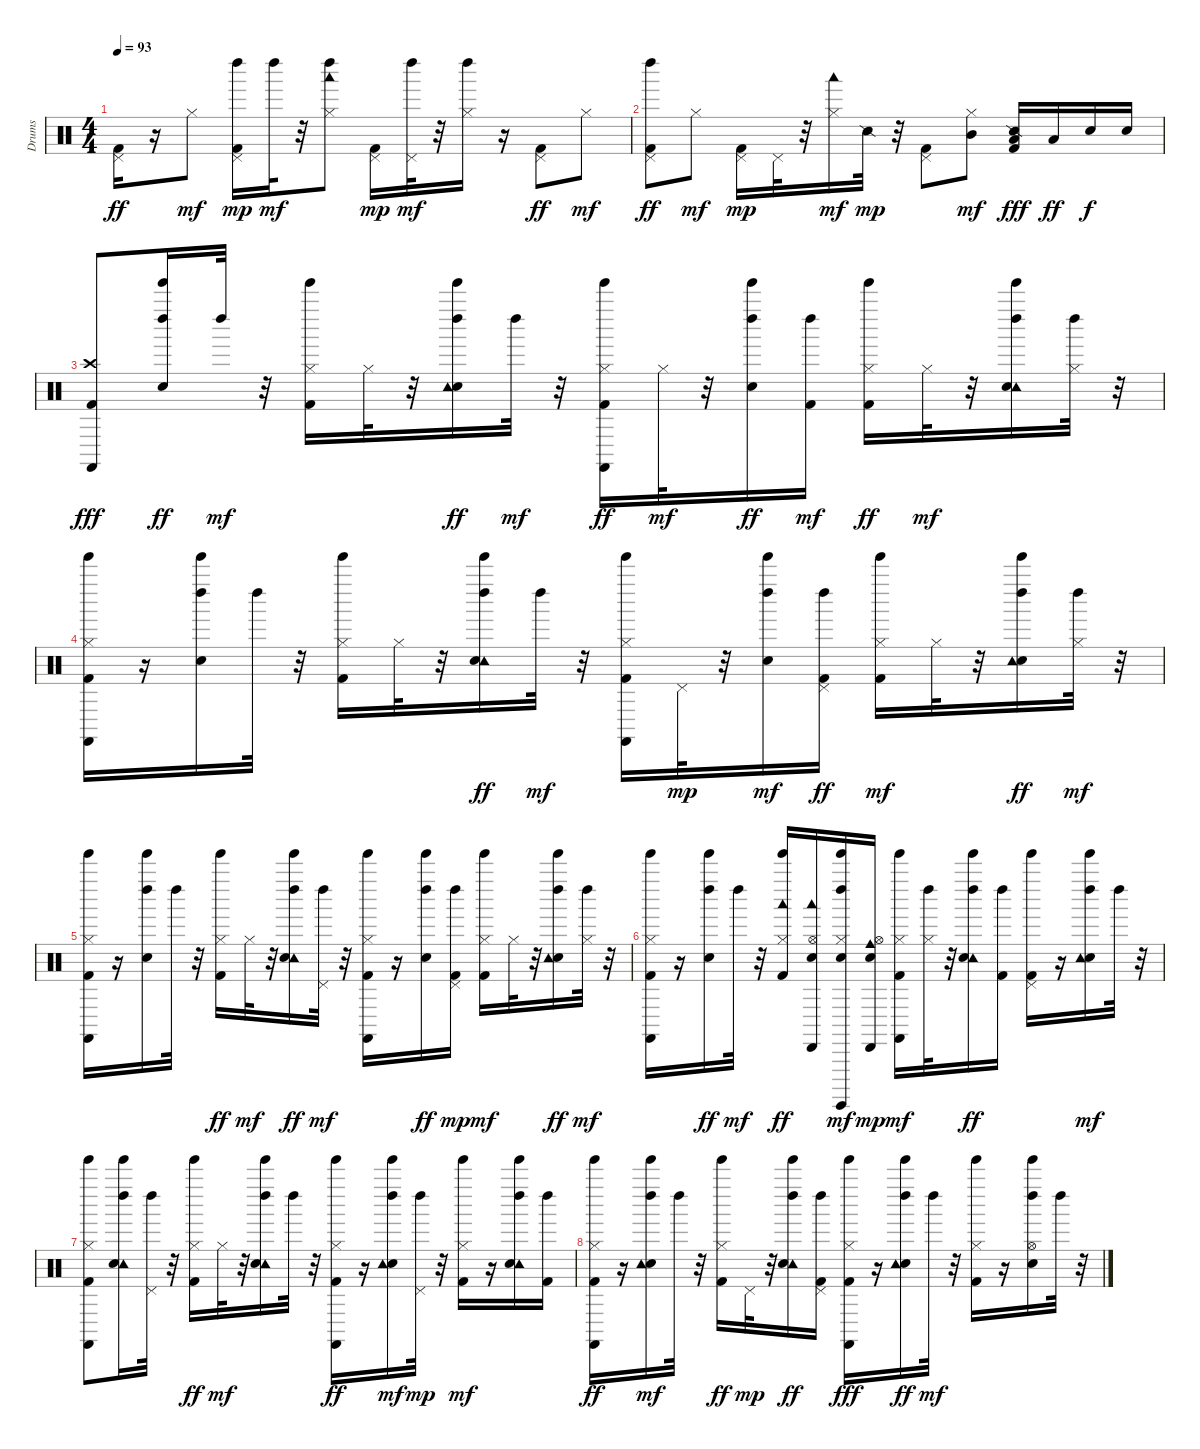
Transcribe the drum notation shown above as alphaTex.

\track ("Drums" "Drums") {instrument percussion}
\staff {score}
\articulation defaults
\ts (4 4)
\tempo 93
\clef neutral
\ks c
("Pedal Hi-Hat (hit)" "Kick (hit) 2").16{dy ff} r.16 "Hi-Hat (closed)".8{dy mf} ("Kick (hit) 2" "Left Maraca (hit)" "Pedal Hi-Hat (hit)").16{dy mp} "Left Maraca (hit)".32{dy mf} r.32 ("Woodblock low (hit)" "Hi-Hat (closed)" "Left Maraca (hit)").8 ("Kick (hit) 2" "Pedal Hi-Hat (hit)").16{dy mp} ("Pedal Hi-Hat (hit)" "Left Maraca (hit)").32{dy mf} r.32 ("Hi-Hat (closed)" "Left Maraca (hit)").16 r.16 ("Pedal Hi-Hat (hit)" "Kick (hit) 2").8{dy ff} "Hi-Hat (closed)".8{dy mf} |
("Pedal Hi-Hat (hit)" "Left Maraca (hit)" "Kick (hit) 2").8{dy ff} "Hi-Hat (closed)".8{dy mf} ("Kick (hit) 2" "Pedal Hi-Hat (hit)").16{dy mp} "Pedal Hi-Hat (hit)".32 r.32 ("Hi-Hat (closed)" "Woodblock low (hit)").16{dy mf} "Snare (side stick) 2".32{dy mp} r.32 ("Kick (hit) 2" "Pedal Hi-Hat (hit)").8 ("Mid Tom (hit)" "Hi-Hat (closed)").8{dy mf} ("Kick (hit) 2" "Snare (side stick) 2" "Low Tom (hit)").16{dy fff} "Low Tom (hit)".16{dy ff} "Electric Snare (hit)".16{dy f} "Electric Snare (hit)".16 |
("Crash high (hit)" "Kick (hit) 2" "Castanets (hit)").8{dy fff} ("Left Maraca (hit)" "Tinkle Bell (hit)" "Snare (hit) 2").16{dy ff} "Left Maraca (hit)".32{dy mf} r.32 ("Tinkle Bell (hit)" "Kick (hit) 2" "Hi-Hat (closed)").16 "Hi-Hat (closed)".32 r.32 ("Tinkle Bell (hit)" "Snare (hit) 2" "Left Maraca (hit)" "Tambourine (hit)").16{dy ff} "Left Maraca (hit)".32{dy mf} r.32 ("Tinkle Bell (hit)" "Castanets (hit)" "Hi-Hat (closed)" "Kick (hit) 2").16{dy ff} "Hi-Hat (closed)".32{dy mf} r.32 ("Tinkle Bell (hit)" "Left Maraca (hit)" "Snare (hit) 2").16{dy ff} ("Kick (hit) 2" "Left Maraca (hit)").16{dy mf} ("Tinkle Bell (hit)" "Hi-Hat (closed)" "Kick (hit) 2").16{dy ff} "Hi-Hat (closed)".32{dy mf} r.32 ("Tinkle Bell (hit)" "Tambourine (hit)" "Snare (hit) 2" "Left Maraca (hit)").16 ("Hi-Hat (closed)" "Left Maraca (hit)").32 r.32 |
("Castanets (hit)" "Kick (hit) 2" "Hi-Hat (closed)" "Tinkle Bell (hit)").16 r.16 ("Snare (hit) 2" "Left Maraca (hit)" "Tinkle Bell (hit)").16 "Left Maraca (hit)".32 r.32 ("Kick (hit) 2" "Hi-Hat (closed)" "Tinkle Bell (hit)").16 "Hi-Hat (closed)".32 r.32 ("Tambourine (hit)" "Left Maraca (hit)" "Tinkle Bell (hit)" "Snare (hit) 2").16{dy ff} "Left Maraca (hit)".32{dy mf} r.32 ("Kick (hit) 2" "Hi-Hat (closed)" "Castanets (hit)" "Tinkle Bell (hit)").16 "Pedal Hi-Hat (hit)".32{dy mp} r.32 ("Tinkle Bell (hit)" "Snare (hit) 2" "Left Maraca (hit)").16{dy mf} ("Left Maraca (hit)" "Pedal Hi-Hat (hit)" "Kick (hit) 2").16{dy ff} ("Hi-Hat (closed)" "Kick (hit) 2" "Tinkle Bell (hit)").16{dy mf} "Hi-Hat (closed)".32 r.32 ("Tinkle Bell (hit)" "Snare (hit) 2" "Left Maraca (hit)" "Tambourine (hit)").16{dy ff} ("Hi-Hat (closed)" "Left Maraca (hit)").32{dy mf} r.32 |
("Kick (hit) 2" "Hi-Hat (closed)" "Castanets (hit)" "Tinkle Bell (hit)").16 r.16 ("Snare (hit) 2" "Left Maraca (hit)" "Tinkle Bell (hit)").16 "Left Maraca (hit)".32 r.32 ("Hi-Hat (closed)" "Tinkle Bell (hit)" "Kick (hit) 2").16{dy ff} "Hi-Hat (closed)".32{dy mf} r.32 ("Tambourine (hit)" "Tinkle Bell (hit)" "Left Maraca (hit)" "Snare (hit) 2").16{dy ff} ("Pedal Hi-Hat (hit)" "Left Maraca (hit)").32{dy mf} r.32 ("Castanets (hit)" "Hi-Hat (closed)" "Kick (hit) 2" "Tinkle Bell (hit)").16 r.16 ("Tinkle Bell (hit)" "Left Maraca (hit)" "Snare (hit) 2").16{dy ff} ("Kick (hit) 2" "Left Maraca (hit)" "Pedal Hi-Hat (hit)").16{dy mp} ("Tinkle Bell (hit)" "Kick (hit) 2" "Hi-Hat (closed)").16{dy mf} "Hi-Hat (closed)".32 r.32 ("Snare (hit) 2" "Left Maraca (hit)" "Tinkle Bell (hit)" "Tambourine (hit)").16{dy ff} ("Hi-Hat (closed)" "Left Maraca (hit)").32{dy mf} r.32 |
("Castanets (hit)" "Kick (hit) 2" "Hi-Hat (closed)" "Tinkle Bell (hit)").16 r.16 ("Left Maraca (hit)" "Tinkle Bell (hit)" "Snare (hit) 2").16{dy ff} "Left Maraca (hit)".32{dy mf} r.32 ("Kick (hit) 2" "Hi-Hat (closed)" "Tinkle Bell (hit)" "Woodblock low (hit)").16{dy ff} ("Woodblock low (hit)" "Cabasa (hit)" "Snare (hit) 2" "Hi-Hat (open)").16 ("Left Maraca (hit)" "Snare (hit) 2" "Tinkle Bell (hit)" "Surdo (hit)" "Hi-Hat (closed)").16{dy mf} ("Cabasa (hit)" "Electric Snare (hit)" "Hi-Hat (open)" "Cowbell medium (hit)").16{dy mp} ("Kick (hit) 2" "Hi-Hat (closed)" "Castanets (hit)" "Tinkle Bell (hit)").16{dy mf} ("Left Maraca (hit)" "Hi-Hat (closed)").32 r.32 ("Tambourine (hit)" "Tinkle Bell (hit)" "Left Maraca (hit)" "Snare (hit) 2").16{dy ff} ("Left Maraca (hit)" "Kick (hit) 2").16 ("Tinkle Bell (hit)" "Pedal Hi-Hat (hit)" "Kick (hit) 2").16 r.16 ("Snare (hit) 2" "Tambourine (hit)" "Tinkle Bell (hit)" "Left Maraca (hit)").16{dy mf} "Left Maraca (hit)".32 r.32 |
("Castanets (hit)" "Kick (hit) 2" "Tinkle Bell (hit)" "Hi-Hat (closed)").8 ("Tambourine (hit)" "Left Maraca (hit)" "Snare (hit) 2" "Tinkle Bell (hit)").16 ("Pedal Hi-Hat (hit)" "Left Maraca (hit)").32 r.32 ("Hi-Hat (closed)" "Tinkle Bell (hit)" "Kick (hit) 2").16{dy ff} "Hi-Hat (closed)".32{dy mf} r.32 ("Tambourine (hit)" "Tinkle Bell (hit)" "Snare (hit) 2" "Left Maraca (hit)").16 "Left Maraca (hit)".32 r.32 ("Castanets (hit)" "Tinkle Bell (hit)" "Hi-Hat (closed)" "Kick (hit) 2").16{dy ff} r.16 ("Left Maraca (hit)" "Snare (hit) 2" "Tambourine (hit)" "Tinkle Bell (hit)").16{dy mf} ("Left Maraca (hit)" "Pedal Hi-Hat (hit)").32{dy mp} r.32 ("Kick (hit) 2" "Tinkle Bell (hit)" "Hi-Hat (closed)").16{dy mf} r.16 ("Tambourine (hit)" "Left Maraca (hit)" "Snare (hit) 2" "Tinkle Bell (hit)").16 ("Kick (hit) 2" "Left Maraca (hit)").16 |
("Hi-Hat (closed)" "Tinkle Bell (hit)" "Castanets (hit)" "Kick (hit) 2").16{dy ff} r.16 ("Snare (hit) 2" "Tambourine (hit)" "Left Maraca (hit)" "Tinkle Bell (hit)").16{dy mf} "Left Maraca (hit)".32 r.32 ("Hi-Hat (closed)" "Tinkle Bell (hit)" "Kick (hit) 2").16{dy ff} "Pedal Hi-Hat (hit)".32{dy mp} r.32 ("Tambourine (hit)" "Tinkle Bell (hit)" "Left Maraca (hit)" "Snare (hit) 2").16{dy ff} ("Left Maraca (hit)" "Pedal Hi-Hat (hit)" "Kick (hit) 2").16 ("Kick (hit) 2" "Tinkle Bell (hit)" "Hi-Hat (closed)" "Castanets (hit)").16{dy fff} r.16 ("Snare (hit) 2" "Tinkle Bell (hit)" "Left Maraca (hit)" "Tambourine (hit)").16{dy ff} "Left Maraca (hit)".32{dy mf} r.32 ("Hi-Hat (closed)" "Kick (hit) 2" "Tinkle Bell (hit)").16 r.16 ("Snare (hit) 2" "Hi-Hat (open)" "Tinkle Bell (hit)" "Left Maraca (hit)").16 "Left Maraca (hit)".32 r.32
